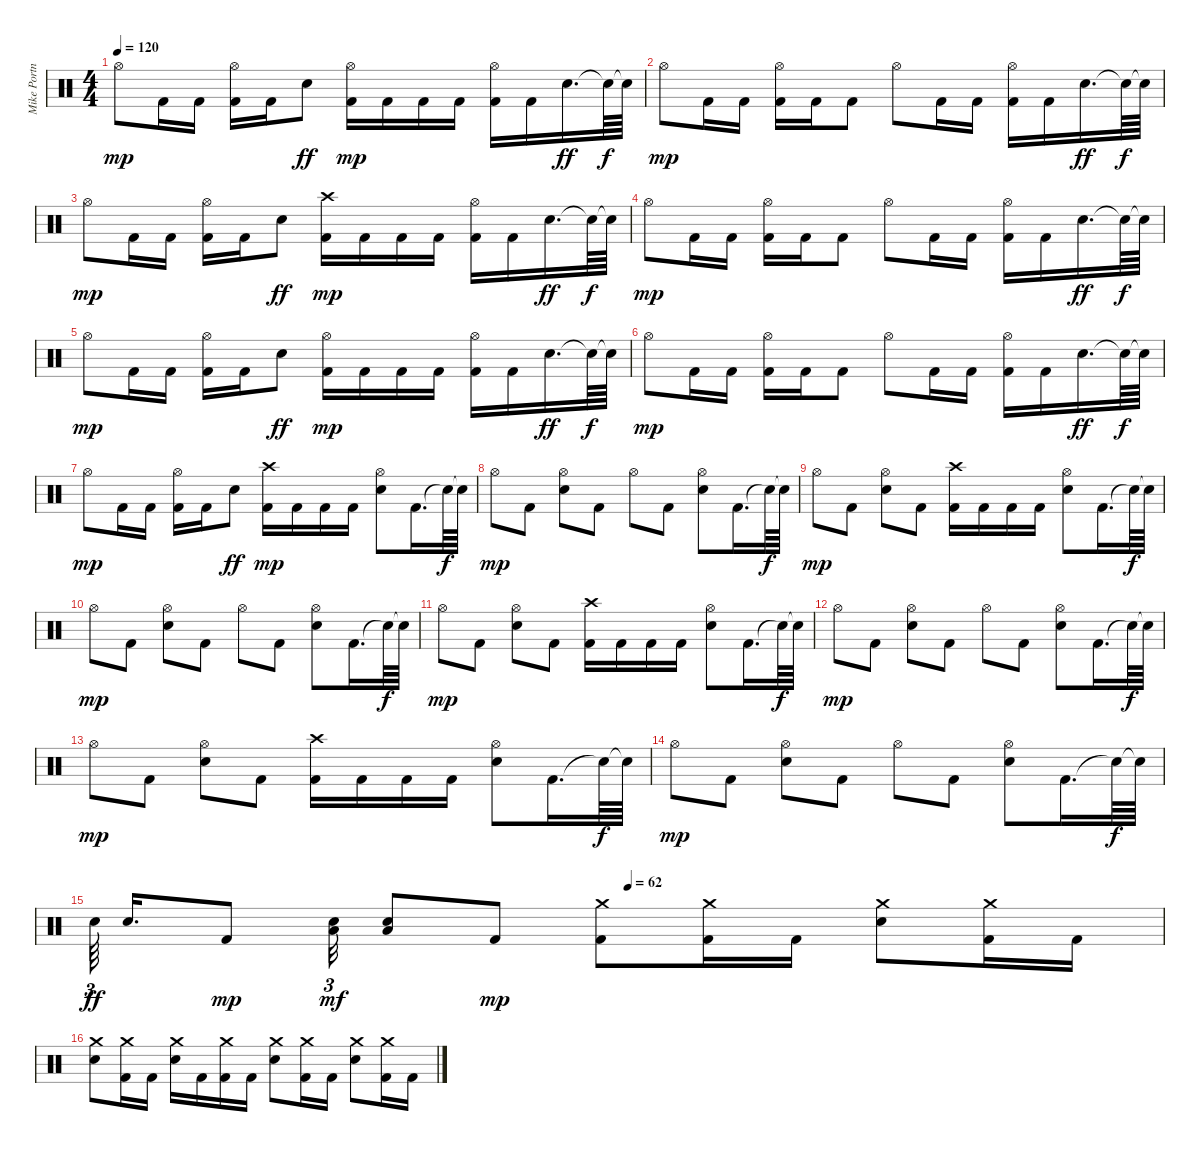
\track ("Mike Portnoy" "Mike Portn") {instrument percussion}
\staff {score}
\articulation defaults
\ts (4 4)
\tempo 120
\clef neutral
\ks c "Hi-Hat (open)".8{dy mp} "Kick (hit) 2".16 "Kick (hit) 2".16
("Kick (hit) 2" "Hi-Hat (open)").16 "Kick (hit) 2".16 "Electric Snare (hit)".8{dy ff} ("Kick (hit) 2" "Hi-Hat (open)").16{dy mp} "Kick (hit) 2".16 "Kick (hit) 2".16 "Kick (hit) 2".16 ("Kick (hit) 2" "Hi-Hat (open)").16 "Kick (hit) 2".16 "Electric Snare (hit)".16{d dy ff} "Snare (hit)"{t}.64{dy f} "Snare (hit)"{t}.64 |
"Hi-Hat (open)".8{dy mp} "Kick (hit) 2".16 "Kick (hit) 2".16 ("Kick (hit) 2" "Hi-Hat (open)").16 "Kick (hit) 2".16 "Kick (hit) 2".8 "Hi-Hat (open)".8 "Kick (hit) 2".16 "Kick (hit) 2".16 ("Kick (hit) 2" "Hi-Hat (open)").16 "Kick (hit) 2".16 "Electric Snare (hit)".16{d dy ff} "Snare (hit)"{t}.64{dy f} "Snare (hit)"{t}.64 |
"Hi-Hat (open)".8{dy mp} "Kick (hit) 2".16 "Kick (hit) 2".16 ("Kick (hit) 2" "Hi-Hat (open)").16 "Kick (hit) 2".16 "Electric Snare (hit)".8{dy ff} ("Kick (hit) 2" "Crash high (hit)").16{dy mp} "Kick (hit) 2".16 "Kick (hit) 2".16 "Kick (hit) 2".16 ("Kick (hit) 2" "Hi-Hat (open)").16 "Kick (hit) 2".16 "Electric Snare (hit)".16{d dy ff} "Snare (hit)"{t}.64{dy f} "Snare (hit)"{t}.64 |
"Hi-Hat (open)".8{dy mp} "Kick (hit) 2".16 "Kick (hit) 2".16 ("Kick (hit) 2" "Hi-Hat (open)").16 "Kick (hit) 2".16 "Kick (hit) 2".8 "Hi-Hat (open)".8 "Kick (hit) 2".16 "Kick (hit) 2".16 ("Kick (hit) 2" "Hi-Hat (open)").16 "Kick (hit) 2".16 "Electric Snare (hit)".16{d dy ff} "Snare (hit)"{t}.64{dy f} "Snare (hit)"{t}.64 |
"Hi-Hat (open)".8{dy mp} "Kick (hit) 2".16 "Kick (hit) 2".16 ("Kick (hit) 2" "Hi-Hat (open)").16 "Kick (hit) 2".16 "Electric Snare (hit)".8{dy ff} ("Kick (hit) 2" "Hi-Hat (open)").16{dy mp} "Kick (hit) 2".16 "Kick (hit) 2".16 "Kick (hit) 2".16 ("Kick (hit) 2" "Hi-Hat (open)").16 "Kick (hit) 2".16 "Electric Snare (hit)".16{d dy ff} "Snare (hit)"{t}.64{dy f} "Snare (hit)"{t}.64 |
"Hi-Hat (open)".8{dy mp} "Kick (hit) 2".16 "Kick (hit) 2".16 ("Kick (hit) 2" "Hi-Hat (open)").16 "Kick (hit) 2".16 "Kick (hit) 2".8 "Hi-Hat (open)".8 "Kick (hit) 2".16 "Kick (hit) 2".16 ("Kick (hit) 2" "Hi-Hat (open)").16 "Kick (hit) 2".16 "Electric Snare (hit)".16{d dy ff} "Snare (hit)"{t}.64{dy f} "Snare (hit)"{t}.64 |
"Hi-Hat (open)".8{dy mp} "Kick (hit) 2".16 "Kick (hit) 2".16 ("Kick (hit) 2" "Hi-Hat (open)").16 "Kick (hit) 2".16 "Electric Snare (hit)".8{dy ff} ("Kick (hit) 2" "Crash high (hit)").16{dy mp} "Kick (hit) 2".16 "Kick (hit) 2".16 "Kick (hit) 2".16 ("Electric Snare (hit)" "Hi-Hat (open)").8 "Kick (hit) 2".16{d} "Snare (hit)"{t}.64{dy f} "Snare (hit)"{t}.64 |
"Hi-Hat (open)".8{dy mp} "Kick (hit) 2".8 ("Electric Snare (hit)" "Hi-Hat (open)").8 "Kick (hit) 2".8 "Hi-Hat (open)".8 "Kick (hit) 2".8 ("Electric Snare (hit)" "Hi-Hat (open)").8 "Kick (hit) 2".16{d} "Snare (hit)"{t}.64{dy f} "Snare (hit)"{t}.64 |
"Hi-Hat (open)".8{dy mp} "Kick (hit) 2".8 ("Electric Snare (hit)" "Hi-Hat (open)").8 "Kick (hit) 2".8 ("Kick (hit) 2" "Crash high (hit)").16 "Kick (hit) 2".16 "Kick (hit) 2".16 "Kick (hit) 2".16 ("Electric Snare (hit)" "Hi-Hat (open)").8 "Kick (hit) 2".16{d} "Snare (hit)"{t}.64{dy f} "Snare (hit)"{t}.64 |
"Hi-Hat (open)".8{dy mp} "Kick (hit) 2".8 ("Electric Snare (hit)" "Hi-Hat (open)").8 "Kick (hit) 2".8 "Hi-Hat (open)".8 "Kick (hit) 2".8 ("Electric Snare (hit)" "Hi-Hat (open)").8 "Kick (hit) 2".16{d} "Snare (hit)"{t}.64{dy f} "Snare (hit)"{t}.64 |
"Hi-Hat (open)".8{dy mp} "Kick (hit) 2".8 ("Electric Snare (hit)" "Hi-Hat (open)").8 "Kick (hit) 2".8 ("Kick (hit) 2" "Crash high (hit)").16 "Kick (hit) 2".16 "Kick (hit) 2".16 "Kick (hit) 2".16 ("Electric Snare (hit)" "Hi-Hat (open)").8 "Kick (hit) 2".16{d} "Snare (hit)"{t}.64{dy f} "Snare (hit)"{t}.64 |
"Hi-Hat (open)".8{dy mp} "Kick (hit) 2".8 ("Electric Snare (hit)" "Hi-Hat (open)").8 "Kick (hit) 2".8 "Hi-Hat (open)".8 "Kick (hit) 2".8 ("Electric Snare (hit)" "Hi-Hat (open)").8 "Kick (hit) 2".16{d} "Snare (hit)"{t}.64{dy f} "Snare (hit)"{t}.64 |
"Hi-Hat (open)".8{dy mp} "Kick (hit) 2".8 ("Electric Snare (hit)" "Hi-Hat (open)").8 "Kick (hit) 2".8 ("Kick (hit) 2" "Crash high (hit)").16 "Kick (hit) 2".16 "Kick (hit) 2".16 "Kick (hit) 2".16 ("Electric Snare (hit)" "Hi-Hat (open)").8 "Kick (hit) 2".16{d} "Snare (hit)"{t}.64{dy f} "Snare (hit)"{t}.64 |
"Hi-Hat (open)".8{dy mp} "Kick (hit) 2".8 ("Electric Snare (hit)" "Hi-Hat (open)").8 "Kick (hit) 2".8 "Hi-Hat (open)".8 "Kick (hit) 2".8 ("Electric Snare (hit)" "Hi-Hat (open)").8 "Kick (hit) 2".16{d} "Snare (hit)"{t}.64{dy f} "Snare (hit)"{t}.64 |
\tempo (62 0.5)
"Electric Snare (hit)".64{tu (3 2) dy ff} "Electric Snare (hit)".16{d} "Kick (hit) 2".8{dy mp} ("Snare (hit)" "Low Floor Tom (hit)").32{tu (3 2) dy mf balance 12} ("Snare (hit)" "Low Floor Tom (hit)").8 "Kick (hit) 2".8{dy mp} ("Kick (hit) 2" "Crash medium (hit)").8 ("Kick (hit) 2" "Crash medium (hit)").16 "Kick (hit) 2".16 ("Electric Snare (hit)" "Crash medium (hit)").8 ("Kick (hit) 2" "Crash medium (hit)").16 "Kick (hit) 2".16 |
("Electric Snare (hit)" "Crash medium (hit)").8 ("Kick (hit) 2" "Crash medium (hit)").16 "Kick (hit) 2".16 ("Electric Snare (hit)" "Crash medium (hit)").16 "Kick (hit) 2".16 ("Kick (hit) 2" "Crash medium (hit)").16 "Kick (hit) 2".16 ("Electric Snare (hit)" "Crash medium (hit)").8 ("Kick (hit) 2" "Crash medium (hit)").16 "Kick (hit) 2".16 ("Electric Snare (hit)" "Crash medium (hit)").8 ("Kick (hit) 2" "Crash medium (hit)").16 "Kick (hit) 2".16
